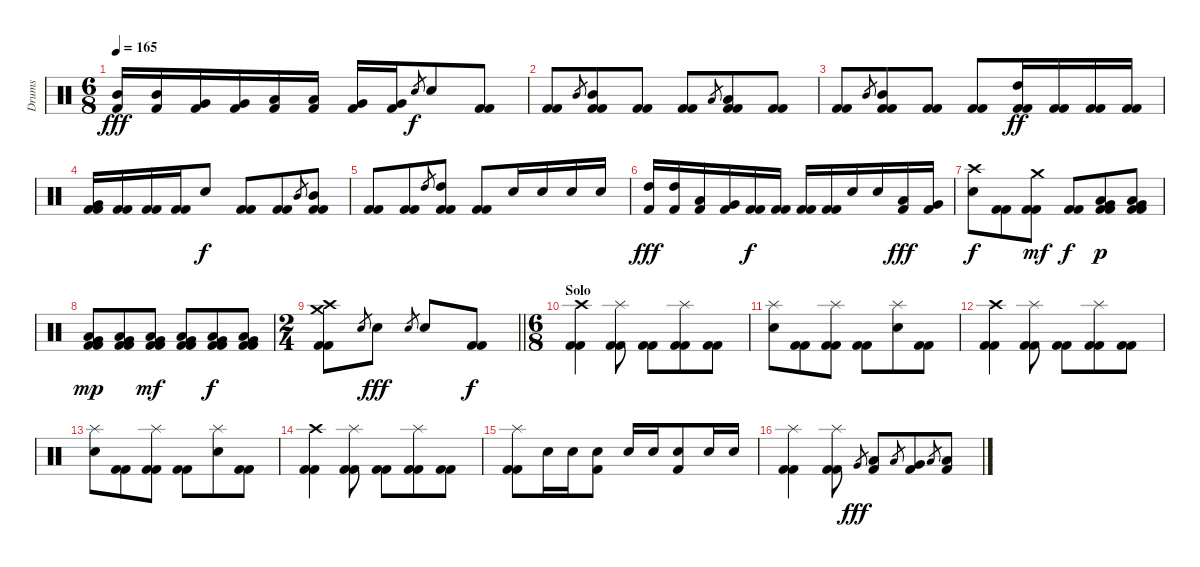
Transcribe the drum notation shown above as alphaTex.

\track ("Drums" "Drums") {instrument percussion}
\staff {score}
\articulation defaults
\ts (6 8)
\tempo 165
\clef neutral
\ks c
("Mid Tom (hit)" "Kick (hit) 2").16{dy fff} ("Mid Tom (hit)" "Kick (hit) 2").16 ("Very Low Tom (hit)" "Kick (hit) 2").16 ("Very Low Tom (hit)" "Kick (hit) 2").16 ("Low Tom (hit)" "Kick (hit) 2").16 ("Low Tom (hit)" "Kick (hit) 2").16 ("Very Low Tom (hit)" "Kick (hit) 2").16 ("Very Low Tom (hit)" "Kick (hit) 2").16 "Electric Snare (hit)".8{gr dy f} "Electric Snare (hit)".8 ("Kick (hit) 2" "Kick (hit) 2").8 |
("Kick (hit) 2" "Kick (hit) 2").8 "Mid Tom (hit)".8{gr} ("Mid Tom (hit)" "Kick (hit) 2" "Kick (hit) 2").8 ("Kick (hit) 2" "Kick (hit) 2").8 ("Kick (hit) 2" "Kick (hit) 2").8 "Low Tom (hit)".8{gr} ("Low Tom (hit)" "Kick (hit) 2" "Kick (hit) 2").8 ("Kick (hit) 2" "Kick (hit) 2").8 |
("Kick (hit) 2" "Kick (hit) 2").8 "Mid Tom (hit)".8{gr} ("Mid Tom (hit)" "Kick (hit) 2" "Kick (hit) 2").8 ("Kick (hit) 2" "Kick (hit) 2").8 ("Kick (hit) 2" "Kick (hit) 2").8 ("High Tom (hit)" "Kick (hit) 2" "Kick (hit) 2").16{dy ff} ("Kick (hit) 2" "Kick (hit) 2").16 ("Kick (hit) 2" "Kick (hit) 2").16 ("Kick (hit) 2" "Kick (hit) 2").16 |
("Very Low Tom (hit)" "Kick (hit) 2" "Kick (hit) 2").16 ("Kick (hit) 2" "Kick (hit) 2").16 ("Kick (hit) 2" "Kick (hit) 2").16 ("Kick (hit) 2" "Kick (hit) 2").16 "Electric Snare (hit)".8{dy f} ("Kick (hit) 2" "Kick (hit) 2").8 ("Kick (hit) 2" "Kick (hit) 2").8 "Mid Tom (hit)".8{gr} ("Mid Tom (hit)" "Kick (hit) 2" "Kick (hit) 2").8 |
("Kick (hit) 2" "Kick (hit) 2").8 ("Kick (hit) 2" "Kick (hit) 2").8 "High Tom (hit)".8{gr} ("High Tom (hit)" "Kick (hit) 2" "Kick (hit) 2").8 ("Kick (hit) 2" "Kick (hit) 2").8 "Electric Snare (hit)".16 "Electric Snare (hit)".16 "Electric Snare (hit)".16 "Electric Snare (hit)".16 |
("High Tom (hit)" "Kick (hit) 2").16{dy fff} ("High Tom (hit)" "Kick (hit) 2").16 ("Low Tom (hit)" "Kick (hit) 2").16 ("Very Low Tom (hit)" "Kick (hit) 2").16 ("Kick (hit) 2" "Kick (hit) 2").16{dy f} ("Kick (hit) 2" "Kick (hit) 2").16 ("Kick (hit) 2" "Kick (hit) 2").16 ("Kick (hit) 2" "Kick (hit) 2").16 "Electric Snare (hit)".16 "Electric Snare (hit)".16 ("Low Tom (hit)" "Kick (hit) 2").16{dy fff} ("Very Low Tom (hit)" "Kick (hit) 2").16 |
("Crash high (hit)" "Electric Snare (hit)").8{dy f} ("Kick (hit) 2" "Kick (hit) 2").8 ("Crash medium (hit)" "Kick (hit) 2" "Kick (hit) 2").8{dy mf} ("Kick (hit) 2" "Kick (hit) 2").8{dy f} ("Very Low Tom (hit)" "Low Floor Tom (hit)" "Kick (hit) 2" "Kick (hit) 2").8{dy p} ("Very Low Tom (hit)" "Low Floor Tom (hit)" "Kick (hit) 2" "Kick (hit) 2").8 |
("Very Low Tom (hit)" "Low Floor Tom (hit)" "Kick (hit) 2" "Kick (hit) 2").8{dy mp} ("Very Low Tom (hit)" "Low Floor Tom (hit)" "Kick (hit) 2" "Kick (hit) 2").8 ("Very Low Tom (hit)" "Low Floor Tom (hit)" "Kick (hit) 2" "Kick (hit) 2").8{dy mf} ("Very Low Tom (hit)" "Low Floor Tom (hit)" "Kick (hit) 2" "Kick (hit) 2").8 ("Very Low Tom (hit)" "Low Floor Tom (hit)" "Kick (hit) 2" "Kick (hit) 2").8{dy f} ("Very Low Tom (hit)" "Low Floor Tom (hit)" "Kick (hit) 2" "Kick (hit) 2").8 |
\ts (2 4)
\barLineRight lightlight
("Crash medium (hit)" "Crash high (hit)" "Kick (hit) 2" "Kick (hit) 2").8 "Electric Snare (hit)".8{gr} "Electric Snare (hit)".8{dy fff} "Electric Snare (hit)".8{gr} "Electric Snare (hit)".8 ("Kick (hit) 2" "Kick (hit) 2").8{dy f} |
\ts (6 8)
\section ("" "Solo")
("Crash high (hit)" "Kick (hit) 2" "Kick (hit) 2").4 ("Splash (hit)" "Kick (hit) 2" "Kick (hit) 2").8 ("Kick (hit) 2" "Kick (hit) 2").8 ("Splash (hit)" "Kick (hit) 2" "Kick (hit) 2").8 ("Kick (hit) 2" "Kick (hit) 2").8 |
("Splash (hit)" "Electric Snare (hit)").8 ("Kick (hit) 2" "Kick (hit) 2").8 ("Splash (hit)" "Kick (hit) 2" "Kick (hit) 2").8 ("Kick (hit) 2" "Kick (hit) 2").8 ("Splash (hit)" "Electric Snare (hit)").8 ("Kick (hit) 2" "Kick (hit) 2").8 |
("Crash high (hit)" "Kick (hit) 2" "Kick (hit) 2").4 ("Splash (hit)" "Kick (hit) 2" "Kick (hit) 2").8 ("Kick (hit) 2" "Kick (hit) 2").8 ("Splash (hit)" "Kick (hit) 2" "Kick (hit) 2").8 ("Kick (hit) 2" "Kick (hit) 2").8 |
("Splash (hit)" "Electric Snare (hit)").8 ("Kick (hit) 2" "Kick (hit) 2").8 ("Splash (hit)" "Kick (hit) 2" "Kick (hit) 2").8 ("Kick (hit) 2" "Kick (hit) 2").8 ("Splash (hit)" "Electric Snare (hit)").8 ("Kick (hit) 2" "Kick (hit) 2").8 |
("Crash high (hit)" "Kick (hit) 2" "Kick (hit) 2").4 ("Splash (hit)" "Kick (hit) 2" "Kick (hit) 2").8 ("Kick (hit) 2" "Kick (hit) 2").8 ("Splash (hit)" "Kick (hit) 2" "Kick (hit) 2").8 ("Kick (hit) 2" "Kick (hit) 2").8 |
("Splash (hit)" "Kick (hit) 2" "Kick (hit) 2").8 "Electric Snare (hit)".16 "Electric Snare (hit)".16 ("Electric Snare (hit)" "Kick (hit) 2").8 "Electric Snare (hit)".16 "Electric Snare (hit)".16 ("Electric Snare (hit)" "Kick (hit) 2").8 "Electric Snare (hit)".16 "Electric Snare (hit)".16 |
("Splash (hit)" "Kick (hit) 2" "Kick (hit) 2").4 ("Splash (hit)" "Kick (hit) 2" "Kick (hit) 2").8 "Very Low Tom (hit)".8{gr dy fff} ("Low Tom (hit)" "Kick (hit) 2").8 "Low Floor Tom (hit)".8{gr} ("Very Low Tom (hit)" "Kick (hit) 2").8 "Low Floor Tom (hit)".8{gr} ("Low Floor Tom (hit)" "Kick (hit) 2").8
